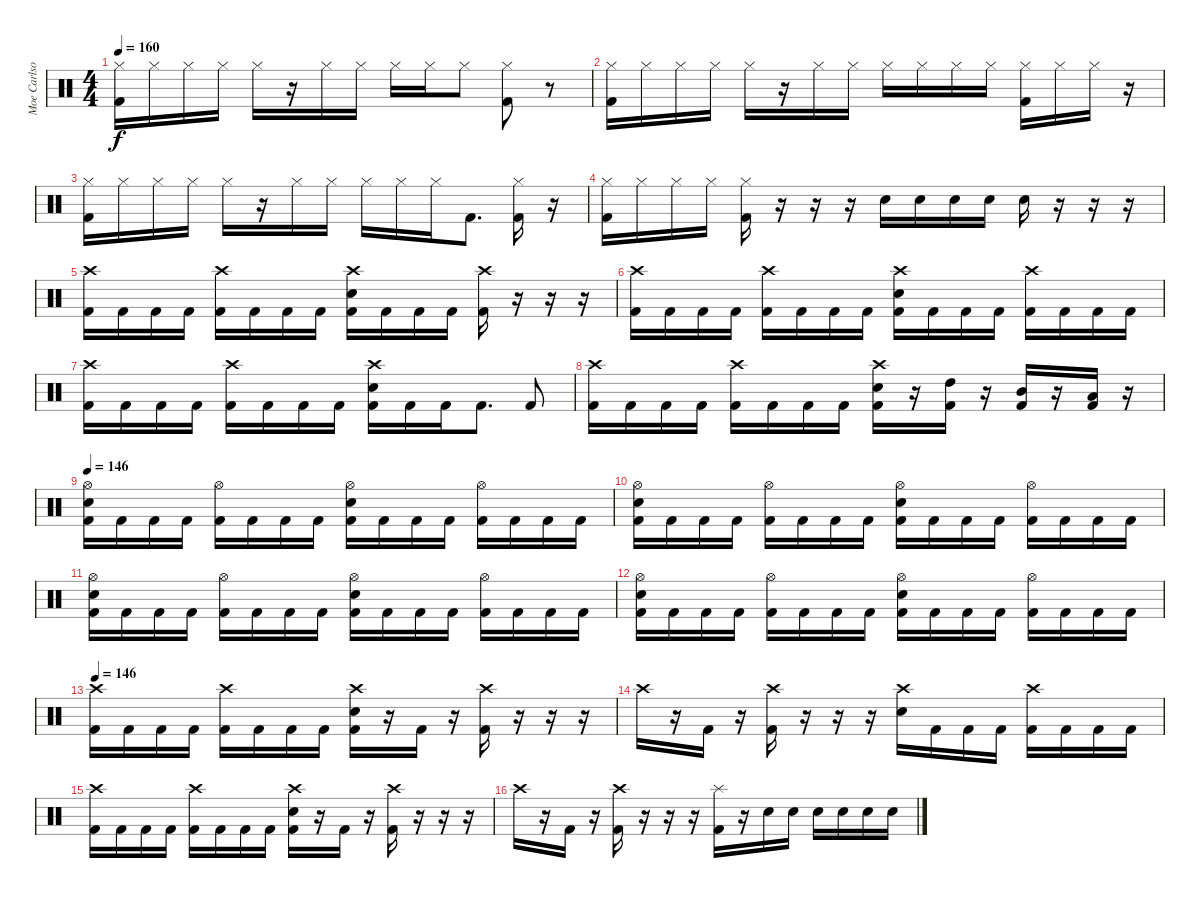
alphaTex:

\track ("Moe Carlson" "Moe Carlso") {instrument percussion}
\staff {score}
\articulation defaults
\ts (4 4)
\tempo 160
\clef neutral
\ks c
("Hi-Hat (closed)" "Kick (hit) 2").16{dy f} "Hi-Hat (closed)".16 "Hi-Hat (closed)".16 "Hi-Hat (closed)".16 "Hi-Hat (closed)".16 r.16 "Hi-Hat (closed)".16 "Hi-Hat (closed)".16 "Hi-Hat (closed)".16 "Hi-Hat (closed)".16 "Hi-Hat (closed)".8 ("Hi-Hat (closed)" "Kick (hit) 2").8 r.8 |
("Hi-Hat (closed)" "Kick (hit) 2").16 "Hi-Hat (closed)".16 "Hi-Hat (closed)".16 "Hi-Hat (closed)".16 "Hi-Hat (closed)".16 r.16 "Hi-Hat (closed)".16 "Hi-Hat (closed)".16 "Hi-Hat (closed)".16 "Hi-Hat (closed)".16 "Hi-Hat (closed)".16 "Hi-Hat (closed)".16 ("Hi-Hat (closed)" "Kick (hit) 2").16 "Hi-Hat (closed)".16 "Hi-Hat (closed)".16 r.16 |
("Hi-Hat (closed)" "Kick (hit) 2").16 "Hi-Hat (closed)".16 "Hi-Hat (closed)".16 "Hi-Hat (closed)".16 "Hi-Hat (closed)".16 r.16 "Hi-Hat (closed)".16 "Hi-Hat (closed)".16 "Hi-Hat (closed)".16 "Hi-Hat (closed)".16 "Hi-Hat (closed)".16 "Kick (hit) 2".8{d} ("Hi-Hat (closed)" "Kick (hit) 2").16 r.16 |
("Hi-Hat (closed)" "Kick (hit) 2").16 "Hi-Hat (closed)".16 "Hi-Hat (closed)".16 "Hi-Hat (closed)".16 ("Hi-Hat (closed)" "Kick (hit) 2").16 r.16 r.16 r.16 "Electric Snare (hit)".16 "Electric Snare (hit)".16 "Electric Snare (hit)".16 "Electric Snare (hit)".16 "Electric Snare (hit)".16 r.16 r.16 r.16 |
("Crash high (hit)" "Kick (hit) 2").16 "Kick (hit) 2".16 "Kick (hit) 2".16 "Kick (hit) 2".16 ("Crash high (hit)" "Kick (hit) 2").16 "Kick (hit) 2".16 "Kick (hit) 2".16 "Kick (hit) 2".16 ("Crash high (hit)" "Electric Snare (hit)" "Kick (hit) 2").16 "Kick (hit) 2".16 "Kick (hit) 2".16 "Kick (hit) 2".16 ("Crash high (hit)" "Kick (hit) 2").16 r.16 r.16 r.16 |
("Crash high (hit)" "Kick (hit) 2").16 "Kick (hit) 2".16 "Kick (hit) 2".16 "Kick (hit) 2".16 ("Crash high (hit)" "Kick (hit) 2").16 "Kick (hit) 2".16 "Kick (hit) 2".16 "Kick (hit) 2".16 ("Crash high (hit)" "Electric Snare (hit)" "Kick (hit) 2").16 "Kick (hit) 2".16 "Kick (hit) 2".16 "Kick (hit) 2".16 ("Crash high (hit)" "Kick (hit) 2").16 "Kick (hit) 2".16 "Kick (hit) 2".16 "Kick (hit) 2".16 |
("Crash high (hit)" "Kick (hit) 2").16 "Kick (hit) 2".16 "Kick (hit) 2".16 "Kick (hit) 2".16 ("Crash high (hit)" "Kick (hit) 2").16 "Kick (hit) 2".16 "Kick (hit) 2".16 "Kick (hit) 2".16 ("Crash high (hit)" "Electric Snare (hit)" "Kick (hit) 2").16 "Kick (hit) 2".16 "Kick (hit) 2".16 "Kick (hit) 2".8{d} "Kick (hit) 2".8 |
("Crash high (hit)" "Kick (hit) 2").16 "Kick (hit) 2".16 "Kick (hit) 2".16 "Kick (hit) 2".16 ("Crash high (hit)" "Kick (hit) 2").16 "Kick (hit) 2".16 "Kick (hit) 2".16 "Kick (hit) 2".16 ("Crash high (hit)" "Electric Snare (hit)" "Kick (hit) 2").16 r.16 ("High Tom (hit)" "Kick (hit) 2").16 r.16 ("Mid Tom (hit)" "Kick (hit) 2").16 r.16 ("Low Tom (hit)" "Kick (hit) 2").16 r.16 |
\tempo 146
("Hi-Hat (open)" "Electric Snare (hit)" "Kick (hit) 2").16 "Kick (hit) 2".16 "Kick (hit) 2".16 "Kick (hit) 2".16 ("Hi-Hat (open)" "Kick (hit) 2").16 "Kick (hit) 2".16 "Kick (hit) 2".16 "Kick (hit) 2".16 ("Hi-Hat (open)" "Electric Snare (hit)" "Kick (hit) 2").16 "Kick (hit) 2".16 "Kick (hit) 2".16 "Kick (hit) 2".16 ("Hi-Hat (open)" "Kick (hit) 2").16 "Kick (hit) 2".16 "Kick (hit) 2".16 "Kick (hit) 2".16 |
("Hi-Hat (open)" "Electric Snare (hit)" "Kick (hit) 2").16 "Kick (hit) 2".16 "Kick (hit) 2".16 "Kick (hit) 2".16 ("Hi-Hat (open)" "Kick (hit) 2").16 "Kick (hit) 2".16 "Kick (hit) 2".16 "Kick (hit) 2".16 ("Hi-Hat (open)" "Electric Snare (hit)" "Kick (hit) 2").16 "Kick (hit) 2".16 "Kick (hit) 2".16 "Kick (hit) 2".16 ("Hi-Hat (open)" "Kick (hit) 2").16 "Kick (hit) 2".16 "Kick (hit) 2".16 "Kick (hit) 2".16 |
("Hi-Hat (open)" "Electric Snare (hit)" "Kick (hit) 2").16 "Kick (hit) 2".16 "Kick (hit) 2".16 "Kick (hit) 2".16 ("Hi-Hat (open)" "Kick (hit) 2").16 "Kick (hit) 2".16 "Kick (hit) 2".16 "Kick (hit) 2".16 ("Hi-Hat (open)" "Electric Snare (hit)" "Kick (hit) 2").16 "Kick (hit) 2".16 "Kick (hit) 2".16 "Kick (hit) 2".16 ("Hi-Hat (open)" "Kick (hit) 2").16 "Kick (hit) 2".16 "Kick (hit) 2".16 "Kick (hit) 2".16 |
("Hi-Hat (open)" "Electric Snare (hit)" "Kick (hit) 2").16 "Kick (hit) 2".16 "Kick (hit) 2".16 "Kick (hit) 2".16 ("Hi-Hat (open)" "Kick (hit) 2").16 "Kick (hit) 2".16 "Kick (hit) 2".16 "Kick (hit) 2".16 ("Hi-Hat (open)" "Electric Snare (hit)" "Kick (hit) 2").16 "Kick (hit) 2".16 "Kick (hit) 2".16 "Kick (hit) 2".16 ("Hi-Hat (open)" "Kick (hit) 2").16 "Kick (hit) 2".16 "Kick (hit) 2".16 "Kick (hit) 2".16 |
\tempo 146
("Crash high (hit)" "Kick (hit) 2").16 "Kick (hit) 2".16 "Kick (hit) 2".16 "Kick (hit) 2".16 ("Crash high (hit)" "Kick (hit) 2").16 "Kick (hit) 2".16 "Kick (hit) 2".16 "Kick (hit) 2".16 ("Crash high (hit)" "Electric Snare (hit)" "Kick (hit) 2").16 r.16 "Kick (hit) 2".16 r.16 ("Crash high (hit)" "Kick (hit) 2").16 r.16 r.16 r.16 |
"Crash high (hit)".16 r.16 "Kick (hit) 2".16 r.16 ("Crash high (hit)" "Kick (hit) 2").16 r.16 r.16 r.16 ("Crash high (hit)" "Electric Snare (hit)").16 "Kick (hit) 2".16 "Kick (hit) 2".16 "Kick (hit) 2".16 ("Crash high (hit)" "Kick (hit) 2").16 "Kick (hit) 2".16 "Kick (hit) 2".16 "Kick (hit) 2".16 |
("Crash high (hit)" "Kick (hit) 2").16 "Kick (hit) 2".16 "Kick (hit) 2".16 "Kick (hit) 2".16 ("Crash high (hit)" "Kick (hit) 2").16 "Kick (hit) 2".16 "Kick (hit) 2".16 "Kick (hit) 2".16 ("Crash high (hit)" "Electric Snare (hit)" "Kick (hit) 2").16 r.16 "Kick (hit) 2".16 r.16 ("Crash high (hit)" "Kick (hit) 2").16 r.16 r.16 r.16 |
"Crash high (hit)".16 r.16 "Kick (hit) 2".16 r.16 ("Crash high (hit)" "Kick (hit) 2").16 r.16 r.16 r.16 ("Splash (hit)" "Kick (hit) 2").16 r.16 "Electric Snare (hit)".16 "Electric Snare (hit)".16 "Electric Snare (hit)".16 "Electric Snare (hit)".16 "Electric Snare (hit)".16 "Electric Snare (hit)".16
